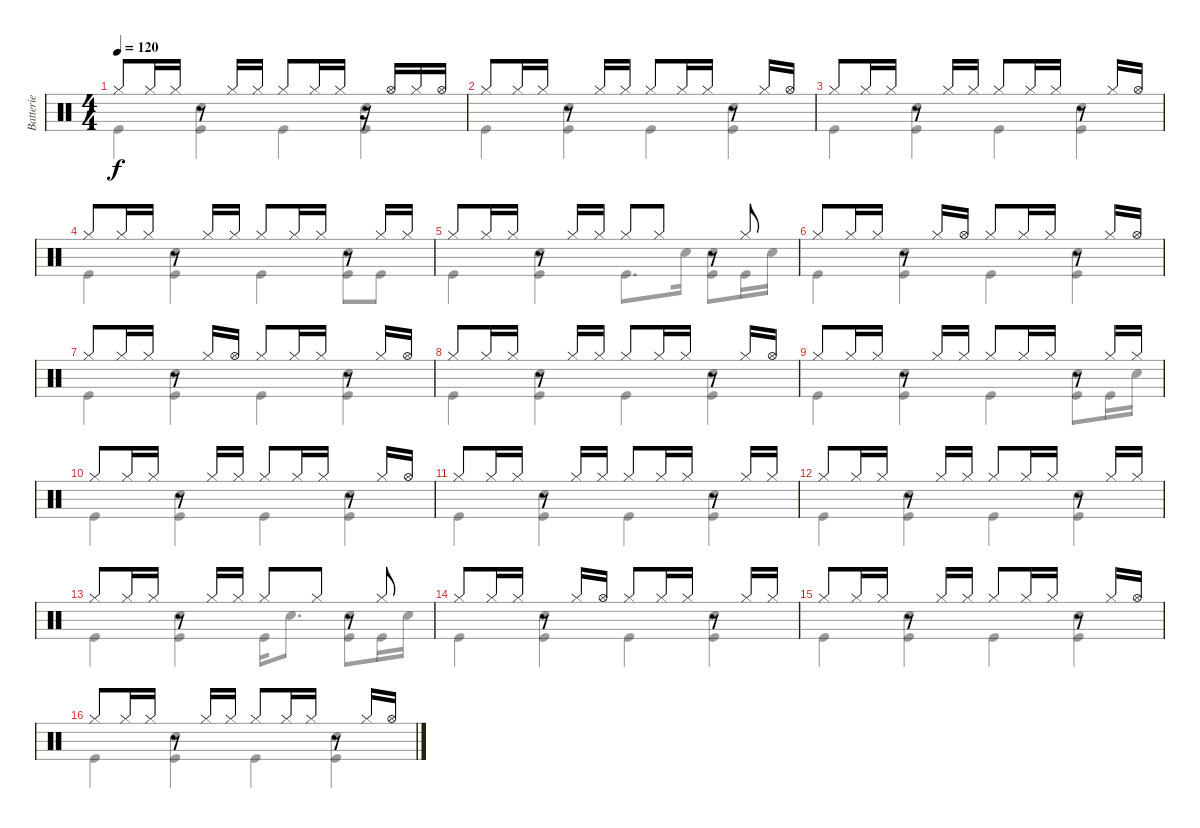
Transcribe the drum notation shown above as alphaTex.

\track ("Batterie" "Batterie") {instrument percussion}
\staff {score}
\articulation defaults
\voice
\ts (4 4)
\tempo 120
\clef neutral
\ks c "Hi-Hat (closed)".8{dy f} "Hi-Hat (closed)".16 "Hi-Hat (closed)".16
r.8 "Hi-Hat (closed)".16 "Hi-Hat (closed)".16 "Hi-Hat (closed)".8 "Hi-Hat (closed)".16 "Hi-Hat (closed)".16 r.16 "Hi-Hat (open)".16 "Hi-Hat (closed)".16 "Hi-Hat (open)".16 |
"Hi-Hat (closed)".8 "Hi-Hat (closed)".16 "Hi-Hat (closed)".16 r.8 "Hi-Hat (closed)".16 "Hi-Hat (closed)".16 "Hi-Hat (closed)".8 "Hi-Hat (closed)".16 "Hi-Hat (closed)".16 r.8 "Hi-Hat (closed)".16 "Hi-Hat (open)".16 |
"Hi-Hat (closed)".8 "Hi-Hat (closed)".16 "Hi-Hat (closed)".16 r.8 "Hi-Hat (closed)".16 "Hi-Hat (closed)".16 "Hi-Hat (closed)".8 "Hi-Hat (closed)".16 "Hi-Hat (closed)".16 r.8 "Hi-Hat (closed)".16 "Hi-Hat (open)".16 |
"Hi-Hat (closed)".8 "Hi-Hat (closed)".16 "Hi-Hat (closed)".16 r.8 "Hi-Hat (closed)".16 "Hi-Hat (closed)".16 "Hi-Hat (closed)".8 "Hi-Hat (closed)".16 "Hi-Hat (closed)".16 r.8 "Hi-Hat (closed)".16 "Hi-Hat (closed)".16 |
"Hi-Hat (closed)".8 "Hi-Hat (closed)".16 "Hi-Hat (closed)".16 r.8 "Hi-Hat (closed)".16 "Hi-Hat (closed)".16 "Hi-Hat (closed)".8 "Hi-Hat (closed)".8 r.8 "Hi-Hat (closed)".8 |
"Hi-Hat (closed)".8 "Hi-Hat (closed)".16 "Hi-Hat (closed)".16 r.8 "Hi-Hat (closed)".16 "Hi-Hat (open)".16 "Hi-Hat (closed)".8 "Hi-Hat (closed)".16 "Hi-Hat (closed)".16 r.8 "Hi-Hat (closed)".16 "Hi-Hat (open)".16 |
"Hi-Hat (closed)".8 "Hi-Hat (closed)".16 "Hi-Hat (closed)".16 r.8 "Hi-Hat (closed)".16 "Hi-Hat (open)".16 "Hi-Hat (closed)".8 "Hi-Hat (closed)".16 "Hi-Hat (closed)".16 r.8 "Hi-Hat (closed)".16 "Hi-Hat (open)".16 |
"Hi-Hat (closed)".8 "Hi-Hat (closed)".16 "Hi-Hat (closed)".16 r.8 "Hi-Hat (closed)".16 "Hi-Hat (closed)".16 "Hi-Hat (closed)".8 "Hi-Hat (closed)".16 "Hi-Hat (closed)".16 r.8 "Hi-Hat (closed)".16 "Hi-Hat (open)".16 |
"Hi-Hat (closed)".8 "Hi-Hat (closed)".16 "Hi-Hat (closed)".16 r.8 "Hi-Hat (closed)".16 "Hi-Hat (closed)".16 "Hi-Hat (closed)".8 "Hi-Hat (closed)".16 "Hi-Hat (closed)".16 r.8 "Hi-Hat (closed)".16 "Hi-Hat (closed)".16 |
"Hi-Hat (closed)".8 "Hi-Hat (closed)".16 "Hi-Hat (closed)".16 r.8 "Hi-Hat (closed)".16 "Hi-Hat (closed)".16 "Hi-Hat (closed)".8 "Hi-Hat (closed)".16 "Hi-Hat (closed)".16 r.8 "Hi-Hat (closed)".16 "Hi-Hat (open)".16 |
"Hi-Hat (closed)".8 "Hi-Hat (closed)".16 "Hi-Hat (closed)".16 r.8 "Hi-Hat (closed)".16 "Hi-Hat (closed)".16 "Hi-Hat (closed)".8 "Hi-Hat (closed)".16 "Hi-Hat (closed)".16 r.8 "Hi-Hat (closed)".16 "Hi-Hat (closed)".16 |
"Hi-Hat (closed)".8 "Hi-Hat (closed)".16 "Hi-Hat (closed)".16 r.8 "Hi-Hat (closed)".16 "Hi-Hat (closed)".16 "Hi-Hat (closed)".8 "Hi-Hat (closed)".16 "Hi-Hat (closed)".16 r.8 "Hi-Hat (closed)".16 "Hi-Hat (closed)".16 |
"Hi-Hat (closed)".8 "Hi-Hat (closed)".16 "Hi-Hat (closed)".16 r.8 "Hi-Hat (closed)".16 "Hi-Hat (closed)".16 "Hi-Hat (closed)".8 "Hi-Hat (closed)".8 r.8 "Hi-Hat (closed)".8 |
"Hi-Hat (closed)".8 "Hi-Hat (closed)".16 "Hi-Hat (closed)".16 r.8 "Hi-Hat (closed)".16 "Hi-Hat (open)".16 "Hi-Hat (closed)".8 "Hi-Hat (closed)".16 "Hi-Hat (closed)".16 r.8 "Hi-Hat (closed)".16 "Hi-Hat (closed)".16 |
"Hi-Hat (closed)".8 "Hi-Hat (closed)".16 "Hi-Hat (closed)".16 r.8 "Hi-Hat (closed)".16 "Hi-Hat (closed)".16 "Hi-Hat (closed)".8 "Hi-Hat (closed)".16 "Hi-Hat (closed)".16 r.8 "Hi-Hat (closed)".16 "Hi-Hat (open)".16 |
"Hi-Hat (closed)".8 "Hi-Hat (closed)".16 "Hi-Hat (closed)".16 r.8 "Hi-Hat (closed)".16 "Hi-Hat (closed)".16 "Hi-Hat (closed)".8 "Hi-Hat (closed)".16 "Hi-Hat (closed)".16 r.8 "Hi-Hat (closed)".16 "Hi-Hat (open)".16
\voice
\clef neutral
\ottava regular
\simile none
\ks c "Kick (hit)".4{dy f}
("Snare (hit) 2" "Kick (hit)").4 "Kick (hit)".4 ("Snare (hit) 2" "Kick (hit)").4 |
"Kick (hit)".4 ("Snare (hit) 2" "Kick (hit)").4 "Kick (hit)".4 ("Snare (hit) 2" "Kick (hit)").4 |
"Kick (hit)".4 ("Snare (hit) 2" "Kick (hit)").4 "Kick (hit)".4 ("Snare (hit) 2" "Kick (hit)").4 |
"Kick (hit)".4 ("Snare (hit) 2" "Kick (hit)").4 "Kick (hit)".4 ("Snare (hit) 2" "Kick (hit)").8 "Kick (hit)".8 |
"Kick (hit)".4 ("Snare (hit) 2" "Kick (hit)").4 "Kick (hit)".8{d} "Snare (hit) 2".16 ("Snare (hit) 2" "Kick (hit)").8 "Kick (hit)".16 "Snare (hit) 2".16 |
"Kick (hit)".4 ("Snare (hit) 2" "Kick (hit)").4 "Kick (hit)".4 ("Snare (hit) 2" "Kick (hit)").4 |
"Kick (hit)".4 ("Snare (hit) 2" "Kick (hit)").4 "Kick (hit)".4 ("Snare (hit) 2" "Kick (hit)").4 |
"Kick (hit)".4 ("Snare (hit) 2" "Kick (hit)").4 "Kick (hit)".4 ("Snare (hit) 2" "Kick (hit)").4 |
"Kick (hit)".4 ("Snare (hit) 2" "Kick (hit)").4 "Kick (hit)".4 ("Snare (hit) 2" "Kick (hit)").8 "Kick (hit)".16 "Snare (hit) 2".16 |
"Kick (hit)".4 ("Snare (hit) 2" "Kick (hit)").4 "Kick (hit)".4 ("Snare (hit) 2" "Kick (hit)").4 |
"Kick (hit)".4 ("Snare (hit) 2" "Kick (hit)").4 "Kick (hit)".4 ("Snare (hit) 2" "Kick (hit)").4 |
"Kick (hit)".4 ("Snare (hit) 2" "Kick (hit)").4 "Kick (hit)".4 ("Snare (hit) 2" "Kick (hit)").4 |
"Kick (hit)".4 ("Snare (hit) 2" "Kick (hit)").4 "Kick (hit)".16 "Snare (hit) 2".8{d} ("Snare (hit) 2" "Kick (hit)").8 "Kick (hit)".16 "Snare (hit) 2".16 |
"Kick (hit)".4 ("Snare (hit) 2" "Kick (hit)").4 "Kick (hit)".4 ("Snare (hit) 2" "Kick (hit)").4 |
"Kick (hit)".4 ("Snare (hit) 2" "Kick (hit)").4 "Kick (hit)".4 ("Snare (hit) 2" "Kick (hit)").4 |
"Kick (hit)".4 ("Snare (hit) 2" "Kick (hit)").4 "Kick (hit)".4 ("Snare (hit) 2" "Kick (hit)").4
